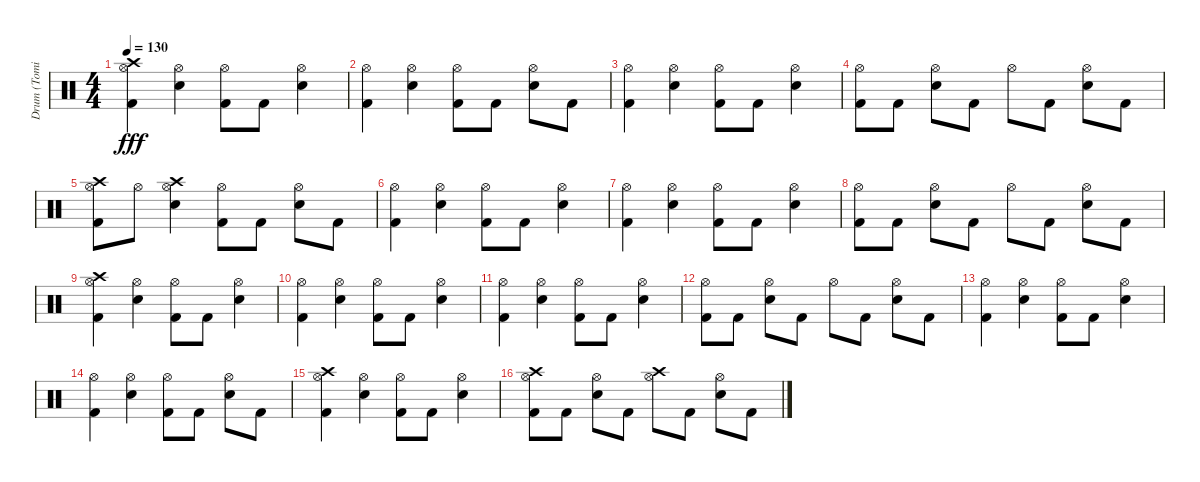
\track ("Drum (Tomi)" "Drum (Tomi") {instrument percussion}
\staff {score}
\articulation defaults
\ts (4 4)
\tempo 130
\clef neutral
\ks c
("Hi-Hat (open)" "Crash high (hit)" "Kick (hit) 2").4{dy fff} ("Hi-Hat (open)" "Electric Snare (hit)").4 ("Hi-Hat (open)" "Kick (hit) 2").8 "Kick (hit) 2".8 ("Hi-Hat (open)" "Electric Snare (hit)").4 |
("Kick (hit) 2" "Hi-Hat (open)").4 ("Hi-Hat (open)" "Electric Snare (hit)").4 ("Hi-Hat (open)" "Kick (hit) 2").8 "Kick (hit) 2".8 ("Hi-Hat (open)" "Electric Snare (hit)").8 "Kick (hit) 2".8 |
("Hi-Hat (open)" "Kick (hit) 2").4 ("Hi-Hat (open)" "Electric Snare (hit)").4 ("Kick (hit) 2" "Hi-Hat (open)").8 "Kick (hit) 2".8 ("Hi-Hat (open)" "Electric Snare (hit)").4 |
("Hi-Hat (open)" "Kick (hit) 2").8 "Kick (hit) 2".8 ("Hi-Hat (open)" "Electric Snare (hit)").8 "Kick (hit) 2".8 "Hi-Hat (open)".8 "Kick (hit) 2".8 ("Hi-Hat (open)" "Electric Snare (hit)").8 "Kick (hit) 2".8 |
("Crash high (hit)" "Hi-Hat (open)" "Kick (hit) 2").8 "Hi-Hat (open)".8 ("Crash high (hit)" "Hi-Hat (open)" "Electric Snare (hit)").4 ("Hi-Hat (open)" "Kick (hit) 2").8 "Kick (hit) 2".8 ("Hi-Hat (open)" "Electric Snare (hit)").8 "Kick (hit) 2".8 |
("Hi-Hat (open)" "Kick (hit) 2").4 ("Hi-Hat (open)" "Electric Snare (hit)").4 ("Hi-Hat (open)" "Kick (hit) 2").8 "Kick (hit) 2".8 ("Hi-Hat (open)" "Electric Snare (hit)").4 |
("Kick (hit) 2" "Hi-Hat (open)").4 ("Hi-Hat (open)" "Electric Snare (hit)").4 ("Hi-Hat (open)" "Kick (hit) 2").8 "Kick (hit) 2".8 ("Hi-Hat (open)" "Electric Snare (hit)").4 |
("Hi-Hat (open)" "Kick (hit) 2").8 "Kick (hit) 2".8 ("Hi-Hat (open)" "Electric Snare (hit)").8 "Kick (hit) 2".8 "Hi-Hat (open)".8 "Kick (hit) 2".8 ("Hi-Hat (open)" "Electric Snare (hit)").8 "Kick (hit) 2".8 |
("Hi-Hat (open)" "Crash high (hit)" "Kick (hit) 2").4 ("Hi-Hat (open)" "Electric Snare (hit)").4 ("Hi-Hat (open)" "Kick (hit) 2").8 "Kick (hit) 2".8 ("Hi-Hat (open)" "Electric Snare (hit)").4 |
("Hi-Hat (open)" "Kick (hit) 2").4 ("Hi-Hat (open)" "Electric Snare (hit)").4 ("Hi-Hat (open)" "Kick (hit) 2").8 "Kick (hit) 2".8 ("Hi-Hat (open)" "Electric Snare (hit)").4 |
("Hi-Hat (open)" "Kick (hit) 2").4 ("Hi-Hat (open)" "Electric Snare (hit)").4 ("Kick (hit) 2" "Hi-Hat (open)").8 "Kick (hit) 2".8 ("Hi-Hat (open)" "Electric Snare (hit)").4 |
("Hi-Hat (open)" "Kick (hit) 2").8 "Kick (hit) 2".8 ("Hi-Hat (open)" "Electric Snare (hit)").8 "Kick (hit) 2".8 "Hi-Hat (open)".8 "Kick (hit) 2".8 ("Hi-Hat (open)" "Electric Snare (hit)").8 "Kick (hit) 2".8 |
("Kick (hit) 2" "Hi-Hat (open)").4 ("Hi-Hat (open)" "Electric Snare (hit)").4 ("Hi-Hat (open)" "Kick (hit) 2").8 "Kick (hit) 2".8 ("Hi-Hat (open)" "Electric Snare (hit)").4 |
("Kick (hit) 2" "Hi-Hat (open)").4 ("Hi-Hat (open)" "Electric Snare (hit)").4 ("Hi-Hat (open)" "Kick (hit) 2").8 "Kick (hit) 2".8 ("Hi-Hat (open)" "Electric Snare (hit)").8 "Kick (hit) 2".8 |
("Hi-Hat (open)" "Kick (hit) 2" "Crash high (hit)").4 ("Hi-Hat (open)" "Electric Snare (hit)").4 ("Hi-Hat (open)" "Kick (hit) 2").8 "Kick (hit) 2".8 ("Hi-Hat (open)" "Electric Snare (hit)").4 |
("Kick (hit) 2" "Crash high (hit)" "Hi-Hat (open)").8 "Kick (hit) 2".8 ("Hi-Hat (open)" "Electric Snare (hit)").8 "Kick (hit) 2".8 ("Hi-Hat (open)" "Crash high (hit)").8 "Kick (hit) 2".8 ("Hi-Hat (open)" "Electric Snare (hit)").8 "Kick (hit) 2".8
